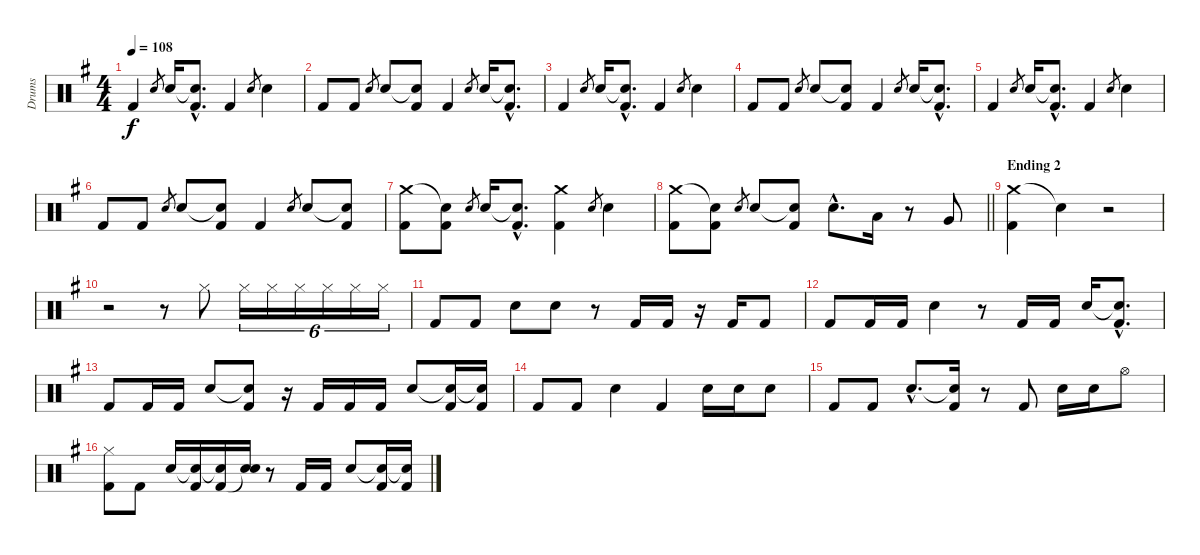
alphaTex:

\track ("Drums" "Drums") {instrument percussion}
\staff {score}
\articulation defaults
\ts (4 4)
\tempo 108
\clef neutral
\ks eminor "Kick (hit) 2".4{dy f} "Electric Snare (hit)".8{gr} "Electric Snare (hit)".16
("Snare (hit)"{hac t} "Kick (hit) 2"{hac}).8{d} "Kick (hit) 2".4 "Electric Snare (hit)".8{gr} "Electric Snare (hit)".4 |
"Kick (hit) 2".8 "Kick (hit) 2".8 "Electric Snare (hit)".8{gr} "Electric Snare (hit)".8 ("Snare (hit)"{t} "Kick (hit) 2").8 "Kick (hit) 2".4 "Electric Snare (hit)".8{gr} "Electric Snare (hit)".16 ("Snare (hit)"{hac t} "Kick (hit) 2"{hac}).8{d} |
"Kick (hit) 2".4 "Electric Snare (hit)".8{gr} "Electric Snare (hit)".16 ("Snare (hit)"{hac t} "Kick (hit) 2"{hac}).8{d} "Kick (hit) 2".4 "Electric Snare (hit)".8{gr} "Electric Snare (hit)".4 |
"Kick (hit) 2".8 "Kick (hit) 2".8 "Electric Snare (hit)".8{gr} "Electric Snare (hit)".8 ("Snare (hit)"{t} "Kick (hit) 2").8 "Kick (hit) 2".4 "Electric Snare (hit)".8{gr} "Electric Snare (hit)".16 ("Snare (hit)"{hac t} "Kick (hit) 2"{hac}).8{d} |
"Kick (hit) 2".4 "Electric Snare (hit)".8{gr} "Electric Snare (hit)".16 ("Snare (hit)"{hac t} "Kick (hit) 2"{hac}).8{d} "Kick (hit) 2".4 "Electric Snare (hit)".8{gr} "Electric Snare (hit)".4 |
"Kick (hit) 2".8 "Kick (hit) 2".8 "Electric Snare (hit)".8{gr} "Electric Snare (hit)".8 ("Snare (hit)"{t} "Kick (hit) 2").8 "Kick (hit) 2".4 "Electric Snare (hit)".8{gr} "Electric Snare (hit)".8 ("Snare (hit)"{t} "Kick (hit) 2").8 |
("Crash medium (hit)" "Kick (hit) 2").8 ("Snare (hit)"{t} "Kick (hit) 2").8 "Electric Snare (hit)".8{gr} "Electric Snare (hit)".16 ("Snare (hit)"{hac t} "Kick (hit) 2"{hac}).8{d} ("Crash medium (hit)" "Kick (hit) 2").4 "Electric Snare (hit)".8{gr} "Electric Snare (hit)".4 |
\barLineRight lightlight
("Crash medium (hit)" "Kick (hit) 2").8 ("Snare (hit)"{t} "Kick (hit) 2").8 "Electric Snare (hit)".8{gr} "Electric Snare (hit)".8 ("Snare (hit)"{t} "Kick (hit) 2").8 "Electric Snare (hit)"{hac}.8{d} "Low Tom (hit)".16 r.8 "Very Low Tom (hit)".8 |
\section ("" "Ending 2")
("Crash medium (hit)" "Kick (hit) 2").4 "Snare (hit)"{t}.4 r.2 |
r.2 r.8 "Hi-Hat (closed)".8 "Hi-Hat (closed)".16{tu (6 4)} "Hi-Hat (closed)".16{tu (6 4)} "Hi-Hat (closed)".16{tu (6 4)} "Hi-Hat (closed)".16{tu (6 4)} "Hi-Hat (closed)".16{tu (6 4)} "Hi-Hat (closed)".16{tu (6 4)} |
"Kick (hit) 2".8 "Kick (hit) 2".8 "Electric Snare (hit)".8 "Electric Snare (hit)".8 r.8 "Kick (hit) 2".16 "Kick (hit) 2".16 r.16 "Kick (hit) 2".16 "Kick (hit) 2".8 |
"Kick (hit) 2".8 "Kick (hit) 2".16 "Kick (hit) 2".16 "Electric Snare (hit)".4 r.8 "Kick (hit) 2".16 "Kick (hit) 2".16 "Electric Snare (hit)".16 ("Snare (hit)"{hac t} "Kick (hit) 2"{hac}).8{d} |
"Kick (hit) 2".8 "Kick (hit) 2".16 "Kick (hit) 2".16 "Electric Snare (hit)".8 ("Snare (hit)"{t} "Kick (hit) 2").8 r.16 "Kick (hit) 2".16 "Kick (hit) 2".16 "Kick (hit) 2".16 "Electric Snare (hit)".8 ("Snare (hit)"{t} "Kick (hit) 2").16 ("Snare (hit)"{t} "Kick (hit) 2").16 |
"Kick (hit) 2".8 "Kick (hit) 2".8 "Electric Snare (hit)".4 "Kick (hit) 2".4 "Electric Snare (hit)".16 "Electric Snare (hit)".16 "Electric Snare (hit)".8 |
"Kick (hit) 2".8 "Kick (hit) 2".8 "Electric Snare (hit)"{hac}.8{d} ("Snare (hit)"{t} "Kick (hit) 2").16 r.8 "Kick (hit) 2".8 "Electric Snare (hit)".16 "Electric Snare (hit)".16 "Hi-Hat (open)".8 |
("Hi-Hat (closed)" "Kick (hit) 2").8 "Kick (hit) 2".8 "Electric Snare (hit)".16 ("Snare (hit)"{t} "Kick (hit) 2").16 ("Snare (hit)"{t} "Kick (hit) 2").16 ("Electric Snare (hit)" "Snare (hit)"{t}).16 r.8 "Kick (hit) 2".16 "Kick (hit) 2".16 "Electric Snare (hit)".8 ("Snare (hit)"{t} "Kick (hit) 2").16 ("Snare (hit)"{t} "Kick (hit) 2").16
